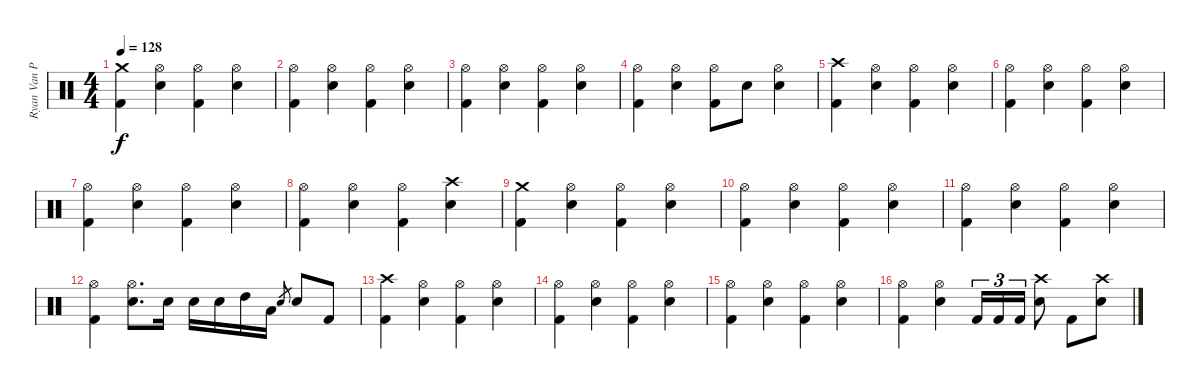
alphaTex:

\track ("Ryan Van Poederooyen" "Ryan Van P") {instrument percussion}
\staff {score}
\articulation defaults
\ts (4 4)
\tempo 128
\clef neutral
\ks c
("Crash medium (hit)" "Kick (hit) 2").4{dy f} ("Hi-Hat (open)" "Electric Snare (hit)").4 ("Hi-Hat (open)" "Kick (hit) 2").4 ("Hi-Hat (open)" "Electric Snare (hit)").4 |
("Hi-Hat (open)" "Kick (hit) 2").4 ("Hi-Hat (open)" "Electric Snare (hit)").4 ("Hi-Hat (open)" "Kick (hit) 2").4 ("Hi-Hat (open)" "Electric Snare (hit)").4 |
("Hi-Hat (open)" "Kick (hit) 2").4 ("Hi-Hat (open)" "Electric Snare (hit)").4 ("Hi-Hat (open)" "Kick (hit) 2").4 ("Hi-Hat (open)" "Electric Snare (hit)").4 |
("Hi-Hat (open)" "Kick (hit) 2").4 ("Hi-Hat (open)" "Electric Snare (hit)").4 ("Hi-Hat (open)" "Kick (hit) 2").8 "Electric Snare (hit)".8 ("Hi-Hat (open)" "Electric Snare (hit)").4 |
("Crash high (hit)" "Kick (hit) 2").4 ("Hi-Hat (open)" "Electric Snare (hit)").4 ("Hi-Hat (open)" "Kick (hit) 2").4 ("Hi-Hat (open)" "Electric Snare (hit)").4 |
("Hi-Hat (open)" "Kick (hit) 2").4 ("Hi-Hat (open)" "Electric Snare (hit)").4 ("Hi-Hat (open)" "Kick (hit) 2").4 ("Hi-Hat (open)" "Electric Snare (hit)").4 |
("Hi-Hat (open)" "Kick (hit) 2").4 ("Hi-Hat (open)" "Electric Snare (hit)").4 ("Hi-Hat (open)" "Kick (hit) 2").4 ("Hi-Hat (open)" "Electric Snare (hit)").4 |
("Hi-Hat (open)" "Kick (hit) 2").4 ("Hi-Hat (open)" "Electric Snare (hit)").4 ("Hi-Hat (open)" "Kick (hit) 2").4 ("Crash high (hit)" "Electric Snare (hit)").4 |
("Crash medium (hit)" "Kick (hit) 2").4 ("Hi-Hat (open)" "Electric Snare (hit)").4 ("Hi-Hat (open)" "Kick (hit) 2").4 ("Hi-Hat (open)" "Electric Snare (hit)").4 |
("Hi-Hat (open)" "Kick (hit) 2").4 ("Hi-Hat (open)" "Electric Snare (hit)").4 ("Hi-Hat (open)" "Kick (hit) 2").4 ("Hi-Hat (open)" "Electric Snare (hit)").4 |
("Hi-Hat (open)" "Kick (hit) 2").4 ("Hi-Hat (open)" "Electric Snare (hit)").4 ("Hi-Hat (open)" "Kick (hit) 2").4 ("Hi-Hat (open)" "Electric Snare (hit)").4 |
("Hi-Hat (open)" "Kick (hit) 2").4 ("Hi-Hat (open)" "Electric Snare (hit)").8{d} "Electric Snare (hit)".16 "Electric Snare (hit)".16 "Electric Snare (hit)".16 "High Tom (hit)".16 "Low Tom (hit)".16 "Electric Snare (hit)".8{gr} "Electric Snare (hit)".8 "Kick (hit) 2".8 |
("Crash high (hit)" "Kick (hit) 2").4 ("Hi-Hat (open)" "Electric Snare (hit)").4 ("Hi-Hat (open)" "Kick (hit) 2").4 ("Hi-Hat (open)" "Electric Snare (hit)").4 |
("Hi-Hat (open)" "Kick (hit) 2").4 ("Hi-Hat (open)" "Electric Snare (hit)").4 ("Hi-Hat (open)" "Kick (hit) 2").4 ("Hi-Hat (open)" "Electric Snare (hit)").4 |
("Hi-Hat (open)" "Kick (hit) 2").4 ("Hi-Hat (open)" "Electric Snare (hit)").4 ("Hi-Hat (open)" "Kick (hit) 2").4 ("Hi-Hat (open)" "Electric Snare (hit)").4 |
("Hi-Hat (open)" "Kick (hit) 2").4 ("Hi-Hat (open)" "Electric Snare (hit)").4 "Kick (hit) 2".16{tu (3 2)} "Kick (hit) 2".16{tu (3 2)} "Kick (hit) 2".16{tu (3 2)} ("Crash high (hit)" "Electric Snare (hit)").8 "Kick (hit) 2".8 ("Crash high (hit)" "Electric Snare (hit)").8
